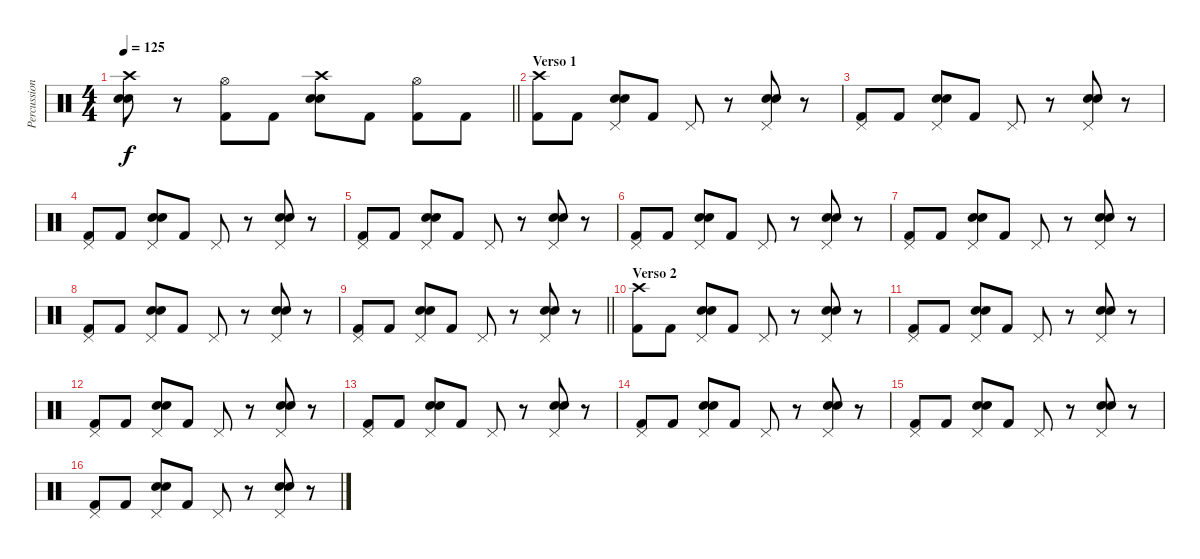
\track ("Percussion" "Percussion") {instrument percussion}
\staff {score}
\articulation defaults
\ts (4 4)
\tempo 125
\clef neutral
\barLineRight lightlight
\ks c
("Crash high (hit)" "Snare (hit) 2" "Electric Snare (hit)").8{dy f} r.8 ("Hi-Hat (open)" "Kick (hit) 2").8 "Kick (hit) 2".8 ("Crash high (hit)" "Electric Snare (hit)" "Snare (hit) 2").8 "Kick (hit) 2".8 ("Hi-Hat (open)" "Kick (hit) 2").8 "Kick (hit) 2".8 |
\section ("" "Verso 1")
("Crash high (hit)" "Kick (hit) 2").8 "Kick (hit) 2".8 ("Pedal Hi-Hat (hit)" "Snare (hit) 2" "Electric Snare (hit)").8 "Kick (hit) 2".8 "Pedal Hi-Hat (hit)".8 r.8 ("Pedal Hi-Hat (hit)" "Snare (hit) 2" "Electric Snare (hit)").8 r.8 |
("Pedal Hi-Hat (hit)" "Kick (hit) 2").8 "Kick (hit) 2".8 ("Pedal Hi-Hat (hit)" "Snare (hit) 2" "Electric Snare (hit)").8 "Kick (hit) 2".8 "Pedal Hi-Hat (hit)".8 r.8 ("Pedal Hi-Hat (hit)" "Snare (hit) 2" "Electric Snare (hit)").8 r.8 |
("Pedal Hi-Hat (hit)" "Kick (hit) 2").8 "Kick (hit) 2".8 ("Pedal Hi-Hat (hit)" "Snare (hit) 2" "Electric Snare (hit)").8 "Kick (hit) 2".8 "Pedal Hi-Hat (hit)".8 r.8 ("Pedal Hi-Hat (hit)" "Snare (hit) 2" "Electric Snare (hit)").8 r.8 |
("Pedal Hi-Hat (hit)" "Kick (hit) 2").8 "Kick (hit) 2".8 ("Pedal Hi-Hat (hit)" "Snare (hit) 2" "Electric Snare (hit)").8 "Kick (hit) 2".8 "Pedal Hi-Hat (hit)".8 r.8 ("Pedal Hi-Hat (hit)" "Snare (hit) 2" "Electric Snare (hit)").8 r.8 |
("Pedal Hi-Hat (hit)" "Kick (hit) 2").8 "Kick (hit) 2".8 ("Pedal Hi-Hat (hit)" "Snare (hit) 2" "Electric Snare (hit)").8 "Kick (hit) 2".8 "Pedal Hi-Hat (hit)".8 r.8 ("Pedal Hi-Hat (hit)" "Snare (hit) 2" "Electric Snare (hit)").8 r.8 |
("Pedal Hi-Hat (hit)" "Kick (hit) 2").8 "Kick (hit) 2".8 ("Pedal Hi-Hat (hit)" "Snare (hit) 2" "Electric Snare (hit)").8 "Kick (hit) 2".8 "Pedal Hi-Hat (hit)".8 r.8 ("Pedal Hi-Hat (hit)" "Snare (hit) 2" "Electric Snare (hit)").8 r.8 |
("Pedal Hi-Hat (hit)" "Kick (hit) 2").8 "Kick (hit) 2".8 ("Pedal Hi-Hat (hit)" "Snare (hit) 2" "Electric Snare (hit)").8 "Kick (hit) 2".8 "Pedal Hi-Hat (hit)".8 r.8 ("Pedal Hi-Hat (hit)" "Snare (hit) 2" "Electric Snare (hit)").8 r.8 |
\barLineRight lightlight
("Pedal Hi-Hat (hit)" "Kick (hit) 2").8 "Kick (hit) 2".8 ("Pedal Hi-Hat (hit)" "Snare (hit) 2" "Electric Snare (hit)").8 "Kick (hit) 2".8 "Pedal Hi-Hat (hit)".8 r.8 ("Pedal Hi-Hat (hit)" "Snare (hit) 2" "Electric Snare (hit)").8 r.8 |
\section ("" "Verso 2")
("Crash high (hit)" "Kick (hit) 2").8 "Kick (hit) 2".8 ("Pedal Hi-Hat (hit)" "Snare (hit) 2" "Electric Snare (hit)").8 "Kick (hit) 2".8 "Pedal Hi-Hat (hit)".8 r.8 ("Pedal Hi-Hat (hit)" "Snare (hit) 2" "Electric Snare (hit)").8 r.8 |
("Pedal Hi-Hat (hit)" "Kick (hit) 2").8 "Kick (hit) 2".8 ("Pedal Hi-Hat (hit)" "Snare (hit) 2" "Electric Snare (hit)").8 "Kick (hit) 2".8 "Pedal Hi-Hat (hit)".8 r.8 ("Pedal Hi-Hat (hit)" "Snare (hit) 2" "Electric Snare (hit)").8 r.8 |
("Pedal Hi-Hat (hit)" "Kick (hit) 2").8 "Kick (hit) 2".8 ("Pedal Hi-Hat (hit)" "Snare (hit) 2" "Electric Snare (hit)").8 "Kick (hit) 2".8 "Pedal Hi-Hat (hit)".8 r.8 ("Pedal Hi-Hat (hit)" "Snare (hit) 2" "Electric Snare (hit)").8 r.8 |
("Pedal Hi-Hat (hit)" "Kick (hit) 2").8 "Kick (hit) 2".8 ("Pedal Hi-Hat (hit)" "Snare (hit) 2" "Electric Snare (hit)").8 "Kick (hit) 2".8 "Pedal Hi-Hat (hit)".8 r.8 ("Pedal Hi-Hat (hit)" "Snare (hit) 2" "Electric Snare (hit)").8 r.8 |
("Pedal Hi-Hat (hit)" "Kick (hit) 2").8 "Kick (hit) 2".8 ("Pedal Hi-Hat (hit)" "Snare (hit) 2" "Electric Snare (hit)").8 "Kick (hit) 2".8 "Pedal Hi-Hat (hit)".8 r.8 ("Pedal Hi-Hat (hit)" "Snare (hit) 2" "Electric Snare (hit)").8 r.8 |
("Pedal Hi-Hat (hit)" "Kick (hit) 2").8 "Kick (hit) 2".8 ("Pedal Hi-Hat (hit)" "Snare (hit) 2" "Electric Snare (hit)").8 "Kick (hit) 2".8 "Pedal Hi-Hat (hit)".8 r.8 ("Pedal Hi-Hat (hit)" "Snare (hit) 2" "Electric Snare (hit)").8 r.8 |
("Pedal Hi-Hat (hit)" "Kick (hit) 2").8 "Kick (hit) 2".8 ("Pedal Hi-Hat (hit)" "Snare (hit) 2" "Electric Snare (hit)").8 "Kick (hit) 2".8 "Pedal Hi-Hat (hit)".8 r.8 ("Pedal Hi-Hat (hit)" "Snare (hit) 2" "Electric Snare (hit)").8 r.8
